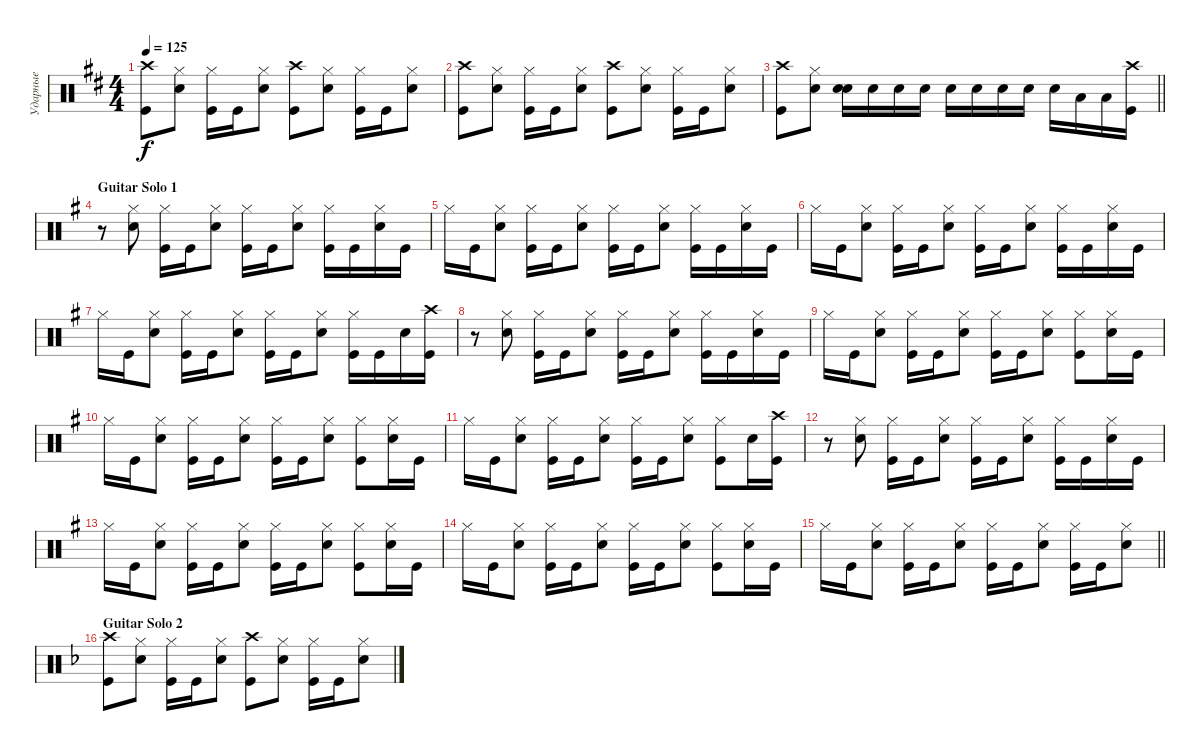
\track ("Ударные" "Ударные") {instrument percussion}
\staff {score}
\articulation defaults
\ts (4 4)
\tempo 125
\clef neutral
\ks bminor
("Kick (hit)" "Crash high (hit)").8{dy f} ("Snare (hit) 2" "Hi-Hat (closed)").8 ("Hi-Hat (closed)" "Kick (hit)").16 "Kick (hit)".16 ("Snare (hit) 2" "Hi-Hat (closed)").8 ("Kick (hit)" "Crash high (hit)").8 ("Snare (hit) 2" "Hi-Hat (closed)").8 ("Hi-Hat (closed)" "Kick (hit)").16 "Kick (hit)".16 ("Snare (hit) 2" "Hi-Hat (closed)").8 |
("Kick (hit)" "Crash high (hit)").8 ("Snare (hit) 2" "Hi-Hat (closed)").8 ("Hi-Hat (closed)" "Kick (hit)").16 "Kick (hit)".16 ("Snare (hit) 2" "Hi-Hat (closed)").8 ("Kick (hit)" "Crash high (hit)").8 ("Snare (hit) 2" "Hi-Hat (closed)").8 ("Hi-Hat (closed)" "Kick (hit)").16 "Kick (hit)".16 ("Snare (hit) 2" "Hi-Hat (closed)").8 |
\barLineRight lightlight
("Kick (hit)" "Crash high (hit)").8 ("Snare (hit) 2" "Hi-Hat (closed)").8 ("Snare (hit) 2" "Snare (hit) 2").16{bd 240} "Snare (hit) 2".16 "Snare (hit) 2".16 "Snare (hit) 2".16 "Snare (hit) 2".16 "Snare (hit) 2".16 "Snare (hit) 2".16 "Snare (hit) 2".16 "Snare (hit) 2".16 "Low Tom (hit)".16 "Low Tom (hit)".16 ("Kick (hit)" "Crash high (hit)").16 |
\section ("" "Guitar Solo 1")
\ks eminor
r.8 ("Snare (hit) 2" "Hi-Hat (closed)").8 ("Kick (hit)" "Hi-Hat (closed)").16 "Kick (hit)".16 ("Snare (hit) 2" "Hi-Hat (closed)").8 ("Kick (hit)" "Hi-Hat (closed)").16 "Kick (hit)".16 ("Snare (hit) 2" "Hi-Hat (closed)").8 ("Kick (hit)" "Hi-Hat (closed)").16 "Kick (hit)".16 ("Snare (hit) 2" "Hi-Hat (closed)").16 "Kick (hit)".16 |
"Hi-Hat (closed)".16 "Kick (hit)".16 ("Snare (hit) 2" "Hi-Hat (closed)").8 ("Kick (hit)" "Hi-Hat (closed)").16 "Kick (hit)".16 ("Snare (hit) 2" "Hi-Hat (closed)").8 ("Kick (hit)" "Hi-Hat (closed)").16 "Kick (hit)".16 ("Snare (hit) 2" "Hi-Hat (closed)").8 ("Kick (hit)" "Hi-Hat (closed)").16 "Kick (hit)".16 ("Snare (hit) 2" "Hi-Hat (closed)").16 "Kick (hit)".16 |
"Hi-Hat (closed)".16 "Kick (hit)".16 ("Snare (hit) 2" "Hi-Hat (closed)").8 ("Kick (hit)" "Hi-Hat (closed)").16 "Kick (hit)".16 ("Snare (hit) 2" "Hi-Hat (closed)").8 ("Kick (hit)" "Hi-Hat (closed)").16 "Kick (hit)".16 ("Snare (hit) 2" "Hi-Hat (closed)").8 ("Kick (hit)" "Hi-Hat (closed)").16 "Kick (hit)".16 ("Snare (hit) 2" "Hi-Hat (closed)").16 "Kick (hit)".16 |
"Hi-Hat (closed)".16 "Kick (hit)".16 ("Snare (hit) 2" "Hi-Hat (closed)").8 ("Kick (hit)" "Hi-Hat (closed)").16 "Kick (hit)".16 ("Snare (hit) 2" "Hi-Hat (closed)").8 ("Kick (hit)" "Hi-Hat (closed)").16 "Kick (hit)".16 ("Snare (hit) 2" "Hi-Hat (closed)").8 ("Kick (hit)" "Hi-Hat (closed)").16 "Kick (hit)".16 "Snare (hit) 2".16 ("Kick (hit)" "Crash high (hit)").16 |
r.8 ("Snare (hit) 2" "Hi-Hat (closed)").8 ("Kick (hit)" "Hi-Hat (closed)").16 "Kick (hit)".16 ("Snare (hit) 2" "Hi-Hat (closed)").8 ("Kick (hit)" "Hi-Hat (closed)").16 "Kick (hit)".16 ("Snare (hit) 2" "Hi-Hat (closed)").8 ("Kick (hit)" "Hi-Hat (closed)").16 "Kick (hit)".16 ("Snare (hit) 2" "Hi-Hat (closed)").16 "Kick (hit)".16 |
"Hi-Hat (closed)".16 "Kick (hit)".16 ("Snare (hit) 2" "Hi-Hat (closed)").8 ("Kick (hit)" "Hi-Hat (closed)").16 "Kick (hit)".16 ("Snare (hit) 2" "Hi-Hat (closed)").8 ("Kick (hit)" "Hi-Hat (closed)").16 "Kick (hit)".16 ("Snare (hit) 2" "Hi-Hat (closed)").8 ("Kick (hit)" "Hi-Hat (closed)").8 ("Snare (hit) 2" "Hi-Hat (closed)").16 "Kick (hit)".16 |
"Hi-Hat (closed)".16 "Kick (hit)".16 ("Snare (hit) 2" "Hi-Hat (closed)").8 ("Kick (hit)" "Hi-Hat (closed)").16 "Kick (hit)".16 ("Snare (hit) 2" "Hi-Hat (closed)").8 ("Kick (hit)" "Hi-Hat (closed)").16 "Kick (hit)".16 ("Snare (hit) 2" "Hi-Hat (closed)").8 ("Kick (hit)" "Hi-Hat (closed)").8 ("Snare (hit) 2" "Hi-Hat (closed)").16 "Kick (hit)".16 |
"Hi-Hat (closed)".16 "Kick (hit)".16 ("Snare (hit) 2" "Hi-Hat (closed)").8 ("Kick (hit)" "Hi-Hat (closed)").16 "Kick (hit)".16 ("Snare (hit) 2" "Hi-Hat (closed)").8 ("Kick (hit)" "Hi-Hat (closed)").16 "Kick (hit)".16 ("Snare (hit) 2" "Hi-Hat (closed)").8 ("Kick (hit)" "Hi-Hat (closed)").8 "Snare (hit) 2".16 ("Kick (hit)" "Crash high (hit)").16 |
r.8 ("Snare (hit) 2" "Hi-Hat (closed)").8 ("Kick (hit)" "Hi-Hat (closed)").16 "Kick (hit)".16 ("Snare (hit) 2" "Hi-Hat (closed)").8 ("Kick (hit)" "Hi-Hat (closed)").16 "Kick (hit)".16 ("Snare (hit) 2" "Hi-Hat (closed)").8 ("Kick (hit)" "Hi-Hat (closed)").16 "Kick (hit)".16 ("Snare (hit) 2" "Hi-Hat (closed)").16 "Kick (hit)".16 |
"Hi-Hat (closed)".16 "Kick (hit)".16 ("Snare (hit) 2" "Hi-Hat (closed)").8 ("Kick (hit)" "Hi-Hat (closed)").16 "Kick (hit)".16 ("Snare (hit) 2" "Hi-Hat (closed)").8 ("Kick (hit)" "Hi-Hat (closed)").16 "Kick (hit)".16 ("Snare (hit) 2" "Hi-Hat (closed)").8 ("Kick (hit)" "Hi-Hat (closed)").8 ("Snare (hit) 2" "Hi-Hat (closed)").16 "Kick (hit)".16 |
"Hi-Hat (closed)".16 "Kick (hit)".16 ("Snare (hit) 2" "Hi-Hat (closed)").8 ("Kick (hit)" "Hi-Hat (closed)").16 "Kick (hit)".16 ("Snare (hit) 2" "Hi-Hat (closed)").8 ("Kick (hit)" "Hi-Hat (closed)").16 "Kick (hit)".16 ("Snare (hit) 2" "Hi-Hat (closed)").8 ("Kick (hit)" "Hi-Hat (closed)").8 ("Snare (hit) 2" "Hi-Hat (closed)").16 "Kick (hit)".16 |
\barLineRight lightlight "Hi-Hat (closed)".16 "Kick (hit)".16
("Snare (hit) 2" "Hi-Hat (closed)").8 ("Kick (hit)" "Hi-Hat (closed)").16 "Kick (hit)".16 ("Snare (hit) 2" "Hi-Hat (closed)").8 ("Kick (hit)" "Hi-Hat (closed)").16 "Kick (hit)".16 ("Snare (hit) 2" "Hi-Hat (closed)").8 ("Kick (hit)" "Hi-Hat (closed)").16 "Kick (hit)".16 ("Snare (hit) 2" "Hi-Hat (closed)").8 |
\section ("" "Guitar Solo 2")
\ks dminor
("Kick (hit)" "Crash high (hit)").8 ("Snare (hit) 2" "Hi-Hat (closed)").8 ("Kick (hit)" "Hi-Hat (closed)").16 "Kick (hit)".16 ("Snare (hit) 2" "Hi-Hat (closed)").8 ("Kick (hit)" "Crash high (hit)").8 ("Snare (hit) 2" "Hi-Hat (closed)").8 ("Kick (hit)" "Hi-Hat (closed)").16 "Kick (hit)".16 ("Snare (hit) 2" "Hi-Hat (closed)").8
